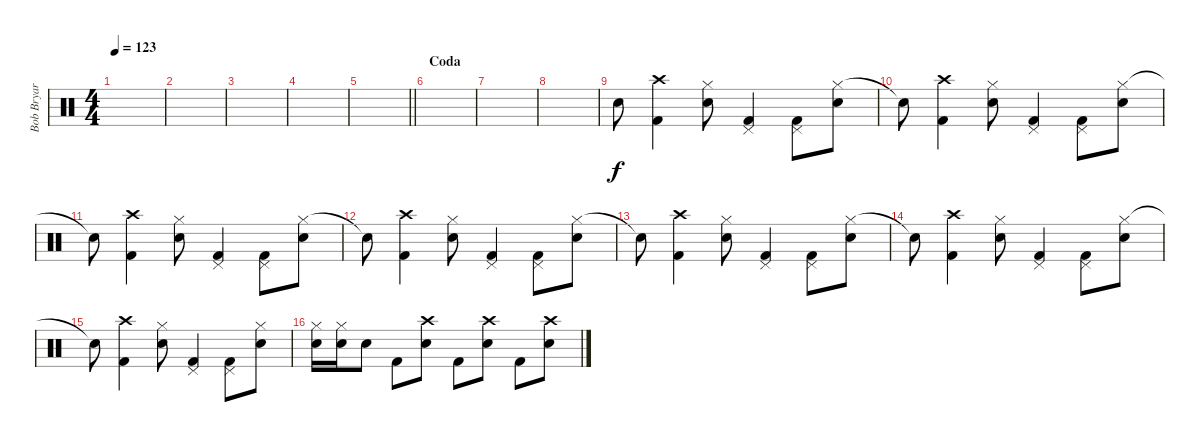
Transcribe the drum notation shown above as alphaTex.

\track ("Bob Bryar" "Bob Bryar") {instrument percussion}
\staff {score}
\articulation defaults
\ts (4 4)
\tempo 123
\clef neutral
\ks c
|
|
|
|
\barLineRight lightlight
|
\section ("" "Coda")
|
|
|
"Snare (hit)".8 ("Crash high (hit)" "Kick (hit) 2").4 ("Hi-Hat (closed)" "Snare (hit) 2").8 ("Pedal Hi-Hat (hit)" "Kick (hit) 2").4 ("Pedal Hi-Hat (hit)" "Kick (hit) 2").8 ("Hi-Hat (closed)" "Snare (hit) 2").8 |
"Snare (hit)"{t}.8 ("Crash high (hit)" "Kick (hit) 2").4 ("Hi-Hat (closed)" "Snare (hit) 2").8 ("Pedal Hi-Hat (hit)" "Kick (hit) 2").4 ("Pedal Hi-Hat (hit)" "Kick (hit) 2").8 ("Hi-Hat (closed)" "Snare (hit) 2").8 |
"Snare (hit)"{t}.8 ("Crash high (hit)" "Kick (hit) 2").4 ("Hi-Hat (closed)" "Snare (hit) 2").8 ("Pedal Hi-Hat (hit)" "Kick (hit) 2").4 ("Pedal Hi-Hat (hit)" "Kick (hit) 2").8 ("Hi-Hat (closed)" "Snare (hit) 2").8 |
"Snare (hit)"{t}.8 ("Crash high (hit)" "Kick (hit) 2").4 ("Hi-Hat (closed)" "Snare (hit) 2").8 ("Pedal Hi-Hat (hit)" "Kick (hit) 2").4 ("Pedal Hi-Hat (hit)" "Kick (hit) 2").8 ("Hi-Hat (closed)" "Snare (hit) 2").8 |
"Snare (hit)"{t}.8 ("Crash high (hit)" "Kick (hit) 2").4 ("Hi-Hat (closed)" "Snare (hit) 2").8 ("Pedal Hi-Hat (hit)" "Kick (hit) 2").4 ("Pedal Hi-Hat (hit)" "Kick (hit) 2").8 ("Hi-Hat (closed)" "Snare (hit) 2").8 |
"Snare (hit)"{t}.8 ("Crash high (hit)" "Kick (hit) 2").4 ("Hi-Hat (closed)" "Snare (hit) 2").8 ("Pedal Hi-Hat (hit)" "Kick (hit) 2").4 ("Pedal Hi-Hat (hit)" "Kick (hit) 2").8 ("Hi-Hat (closed)" "Snare (hit) 2").8 |
"Snare (hit)"{t}.8 ("Crash high (hit)" "Kick (hit) 2").4 ("Hi-Hat (closed)" "Snare (hit) 2").8 ("Pedal Hi-Hat (hit)" "Kick (hit) 2").4 ("Pedal Hi-Hat (hit)" "Kick (hit) 2").8 ("Hi-Hat (closed)" "Snare (hit) 2").8 |
("Hi-Hat (closed)" "Snare (hit) 2").16 ("Hi-Hat (closed)" "Snare (hit) 2").16 "Snare (hit) 2".8 "Kick (hit) 2".8 ("Crash high (hit)" "Snare (hit) 2").8 "Kick (hit) 2".8 ("Crash high (hit)" "Snare (hit) 2").8 "Kick (hit) 2".8 ("Crash high (hit)" "Snare (hit) 2").8{volume 13}
